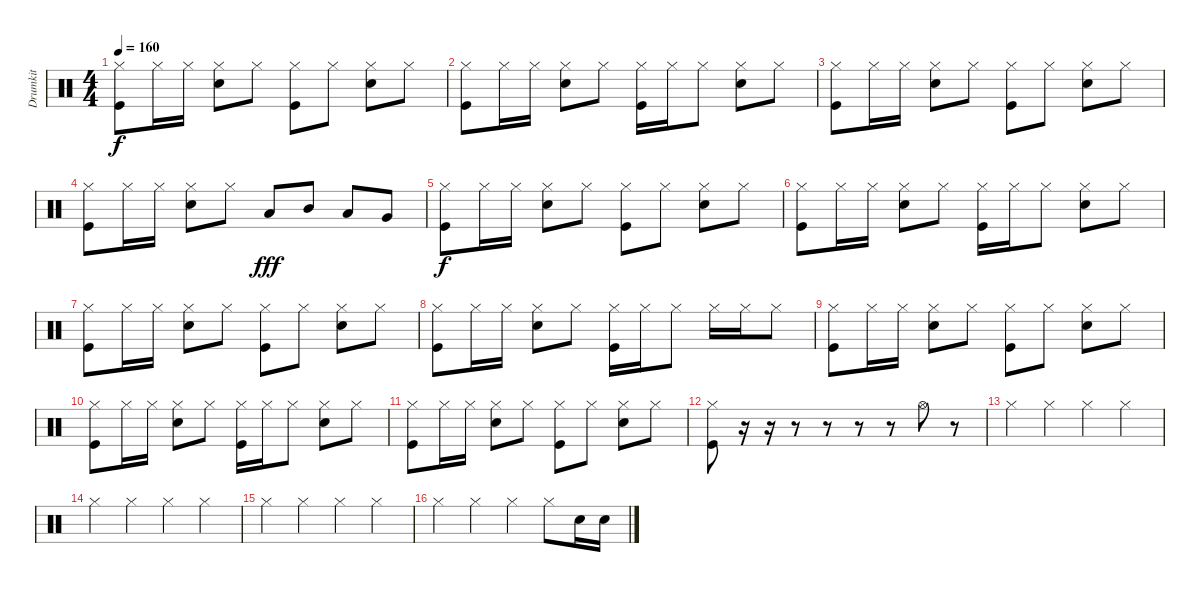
\track ("Drumkit" "Drumkit") {instrument percussion}
\staff {score}
\articulation defaults
\ts (4 4)
\tempo 160
\clef neutral
\ks c
("Hi-Hat (closed)" "Kick (hit)").8{dy f} "Hi-Hat (closed)".16 "Hi-Hat (closed)".16 ("Hi-Hat (closed)" "Snare (hit) 2").8 "Hi-Hat (closed)".8 ("Hi-Hat (closed)" "Kick (hit)").8 "Hi-Hat (closed)".8 ("Hi-Hat (closed)" "Snare (hit) 2").8 "Hi-Hat (closed)".8 |
("Hi-Hat (closed)" "Kick (hit)").8 "Hi-Hat (closed)".16 "Hi-Hat (closed)".16 ("Hi-Hat (closed)" "Snare (hit) 2").8 "Hi-Hat (closed)".8 ("Hi-Hat (closed)" "Kick (hit)").16 "Hi-Hat (closed)".16 "Hi-Hat (closed)".8 ("Hi-Hat (closed)" "Snare (hit) 2").8 "Hi-Hat (closed)".8 |
("Hi-Hat (closed)" "Kick (hit)").8 "Hi-Hat (closed)".16 "Hi-Hat (closed)".16 ("Hi-Hat (closed)" "Snare (hit) 2").8 "Hi-Hat (closed)".8 ("Hi-Hat (closed)" "Kick (hit)").8 "Hi-Hat (closed)".8 ("Hi-Hat (closed)" "Snare (hit) 2").8 "Hi-Hat (closed)".8 |
("Hi-Hat (closed)" "Kick (hit)").8 "Hi-Hat (closed)".16 "Hi-Hat (closed)".16 ("Hi-Hat (closed)" "Snare (hit) 2").8 "Hi-Hat (closed)".8 "Low Tom (hit)".8{dy fff} "Mid Tom (hit)".8 "Low Tom (hit)".8 "Very Low Tom (hit)".8 |
("Hi-Hat (closed)" "Kick (hit)").8{dy f} "Hi-Hat (closed)".16 "Hi-Hat (closed)".16 ("Hi-Hat (closed)" "Snare (hit) 2").8 "Hi-Hat (closed)".8 ("Hi-Hat (closed)" "Kick (hit)").8 "Hi-Hat (closed)".8 ("Hi-Hat (closed)" "Snare (hit) 2").8 "Hi-Hat (closed)".8 |
("Hi-Hat (closed)" "Kick (hit)").8 "Hi-Hat (closed)".16 "Hi-Hat (closed)".16 ("Hi-Hat (closed)" "Snare (hit) 2").8 "Hi-Hat (closed)".8 ("Hi-Hat (closed)" "Kick (hit)").16 "Hi-Hat (closed)".16 "Hi-Hat (closed)".8 ("Hi-Hat (closed)" "Snare (hit) 2").8 "Hi-Hat (closed)".8 |
("Hi-Hat (closed)" "Kick (hit)").8 "Hi-Hat (closed)".16 "Hi-Hat (closed)".16 ("Hi-Hat (closed)" "Snare (hit) 2").8 "Hi-Hat (closed)".8 ("Hi-Hat (closed)" "Kick (hit)").8 "Hi-Hat (closed)".8 ("Hi-Hat (closed)" "Snare (hit) 2").8 "Hi-Hat (closed)".8 |
("Hi-Hat (closed)" "Kick (hit)").8 "Hi-Hat (closed)".16 "Hi-Hat (closed)".16 ("Hi-Hat (closed)" "Snare (hit) 2").8 "Hi-Hat (closed)".8 ("Hi-Hat (closed)" "Kick (hit)").16 "Hi-Hat (closed)".16 "Hi-Hat (closed)".8 "Hi-Hat (closed)".16 "Hi-Hat (closed)".16 "Hi-Hat (closed)".8 |
("Hi-Hat (closed)" "Kick (hit)").8 "Hi-Hat (closed)".16 "Hi-Hat (closed)".16 ("Hi-Hat (closed)" "Snare (hit) 2").8 "Hi-Hat (closed)".8 ("Hi-Hat (closed)" "Kick (hit)").8 "Hi-Hat (closed)".8 ("Hi-Hat (closed)" "Snare (hit) 2").8 "Hi-Hat (closed)".8 |
("Hi-Hat (closed)" "Kick (hit)").8 "Hi-Hat (closed)".16 "Hi-Hat (closed)".16 ("Hi-Hat (closed)" "Snare (hit) 2").8 "Hi-Hat (closed)".8 ("Hi-Hat (closed)" "Kick (hit)").16 "Hi-Hat (closed)".16 "Hi-Hat (closed)".8 ("Hi-Hat (closed)" "Snare (hit) 2").8 "Hi-Hat (closed)".8 |
("Hi-Hat (closed)" "Kick (hit)").8 "Hi-Hat (closed)".16 "Hi-Hat (closed)".16 ("Hi-Hat (closed)" "Snare (hit) 2").8 "Hi-Hat (closed)".8 ("Hi-Hat (closed)" "Kick (hit)").8 "Hi-Hat (closed)".8 ("Hi-Hat (closed)" "Snare (hit) 2").8 "Hi-Hat (closed)".8 |
("Hi-Hat (closed)" "Kick (hit)").8 r.16 r.16 r.8 r.8 r.8 r.8 "Hi-Hat (open)".8 r.8 |
"Hi-Hat (closed)".4 "Hi-Hat (closed)".4 "Hi-Hat (closed)".4 "Hi-Hat (closed)".4 |
"Hi-Hat (closed)".4 "Hi-Hat (closed)".4 "Hi-Hat (closed)".4 "Hi-Hat (closed)".4 |
"Hi-Hat (closed)".4 "Hi-Hat (closed)".4 "Hi-Hat (closed)".4 "Hi-Hat (closed)".4 |
"Hi-Hat (closed)".4 "Hi-Hat (closed)".4 "Hi-Hat (closed)".4 "Hi-Hat (closed)".8 "Snare (hit) 2".16 "Snare (hit) 2".16
